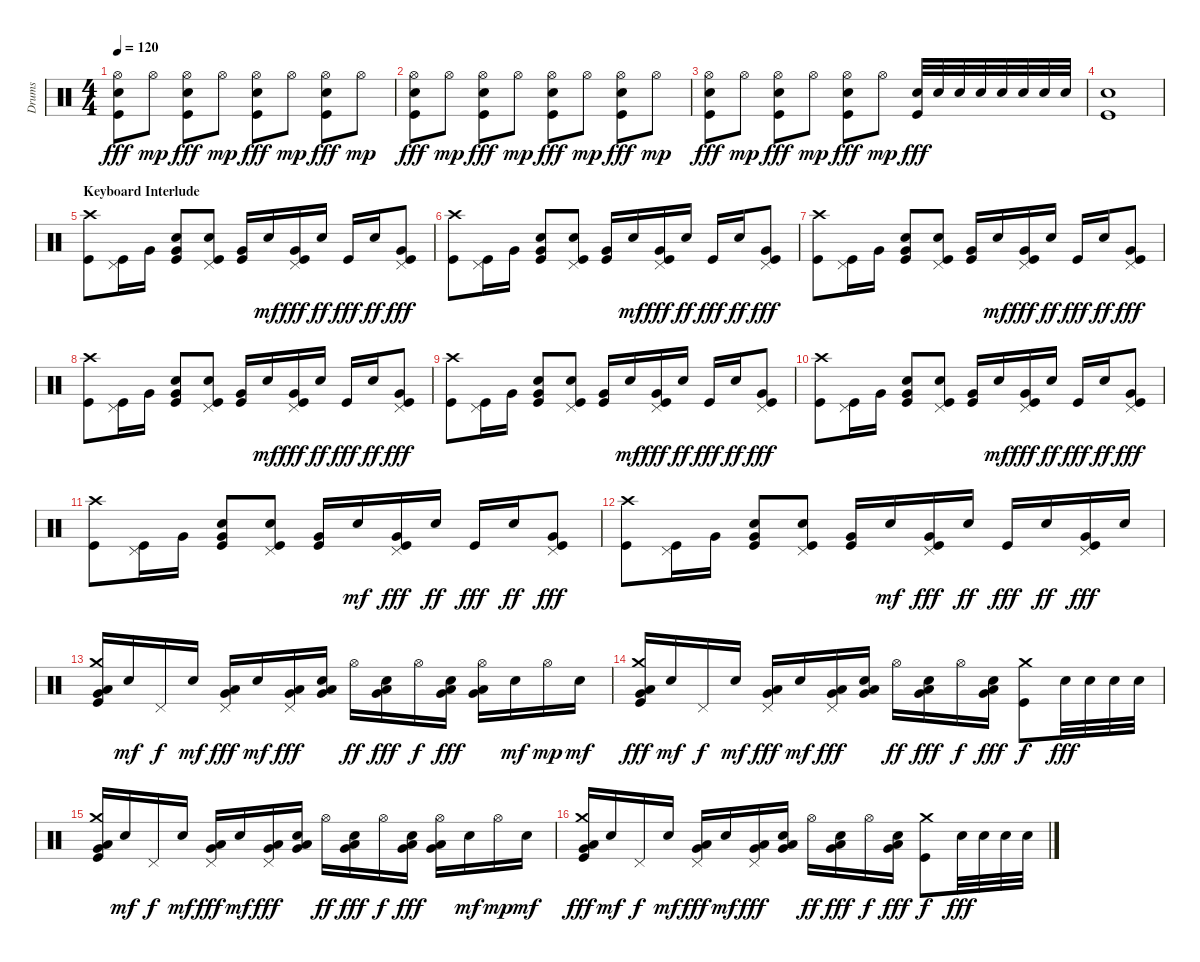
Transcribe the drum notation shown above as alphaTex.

\track ("Drums" "Drums") {instrument percussion}
\staff {score}
\articulation defaults
\ts (4 4)
\tempo 120
\clef neutral
\ks c
("Hi-Hat (open)" "Electric Snare (hit)" "Kick (hit)").8{dy fff} "Hi-Hat (open)".8{dy mp} ("Hi-Hat (open)" "Electric Snare (hit)" "Kick (hit)").8{dy fff} "Hi-Hat (open)".8{dy mp} ("Hi-Hat (open)" "Electric Snare (hit)" "Kick (hit)").8{dy fff} "Hi-Hat (open)".8{dy mp} ("Hi-Hat (open)" "Electric Snare (hit)" "Kick (hit)").8{dy fff} "Hi-Hat (open)".8{dy mp} |
("Hi-Hat (open)" "Electric Snare (hit)" "Kick (hit)").8{dy fff} "Hi-Hat (open)".8{dy mp} ("Hi-Hat (open)" "Electric Snare (hit)" "Kick (hit)").8{dy fff} "Hi-Hat (open)".8{dy mp} ("Hi-Hat (open)" "Electric Snare (hit)" "Kick (hit)").8{dy fff} "Hi-Hat (open)".8{dy mp} ("Hi-Hat (open)" "Electric Snare (hit)" "Kick (hit)").8{dy fff} "Hi-Hat (open)".8{dy mp} |
("Hi-Hat (open)" "Electric Snare (hit)" "Kick (hit)").8{dy fff} "Hi-Hat (open)".8{dy mp} ("Hi-Hat (open)" "Electric Snare (hit)" "Kick (hit)").8{dy fff} "Hi-Hat (open)".8{dy mp} ("Hi-Hat (open)" "Electric Snare (hit)" "Kick (hit)").8{dy fff} "Hi-Hat (open)".8{dy mp} ("Electric Snare (hit)" "Kick (hit)").32{dy fff} "Electric Snare (hit)".32 "Electric Snare (hit)".32 "Electric Snare (hit)".32 "Electric Snare (hit)".32 "Electric Snare (hit)".32 "Electric Snare (hit)".32 "Electric Snare (hit)".32 |
("Electric Snare (hit)" "Kick (hit)").1 |
\section ("" "Keyboard Interlude")
("Crash high (hit)" "Kick (hit)").8 ("Pedal Hi-Hat (hit)" "Kick (hit)").16 "Very Low Tom (hit)".16 ("Very Low Tom (hit)" "Electric Snare (hit)" "Kick (hit)").8 ("Pedal Hi-Hat (hit)" "Electric Snare (hit)" "Kick (hit)").8 ("Very Low Tom (hit)" "Kick (hit)").16 "Electric Snare (hit)".16{dy mf} ("Pedal Hi-Hat (hit)" "Very Low Tom (hit)" "Kick (hit)").16{dy fff} "Electric Snare (hit)".16{dy ff} "Kick (hit)".16{dy fff} "Electric Snare (hit)".16{dy ff} ("Pedal Hi-Hat (hit)" "Very Low Tom (hit)" "Kick (hit)").8{dy fff} |
("Crash high (hit)" "Kick (hit)").8 ("Pedal Hi-Hat (hit)" "Kick (hit)").16 "Very Low Tom (hit)".16 ("Very Low Tom (hit)" "Electric Snare (hit)" "Kick (hit)").8 ("Pedal Hi-Hat (hit)" "Electric Snare (hit)" "Kick (hit)").8 ("Very Low Tom (hit)" "Kick (hit)").16 "Electric Snare (hit)".16{dy mf} ("Pedal Hi-Hat (hit)" "Very Low Tom (hit)" "Kick (hit)").16{dy fff} "Electric Snare (hit)".16{dy ff} "Kick (hit)".16{dy fff} "Electric Snare (hit)".16{dy ff} ("Pedal Hi-Hat (hit)" "Very Low Tom (hit)" "Kick (hit)").8{dy fff} |
("Crash high (hit)" "Kick (hit)").8 ("Pedal Hi-Hat (hit)" "Kick (hit)").16 "Very Low Tom (hit)".16 ("Very Low Tom (hit)" "Electric Snare (hit)" "Kick (hit)").8 ("Pedal Hi-Hat (hit)" "Electric Snare (hit)" "Kick (hit)").8 ("Very Low Tom (hit)" "Kick (hit)").16 "Electric Snare (hit)".16{dy mf} ("Pedal Hi-Hat (hit)" "Very Low Tom (hit)" "Kick (hit)").16{dy fff} "Electric Snare (hit)".16{dy ff} "Kick (hit)".16{dy fff} "Electric Snare (hit)".16{dy ff} ("Pedal Hi-Hat (hit)" "Very Low Tom (hit)" "Kick (hit)").8{dy fff} |
("Crash high (hit)" "Kick (hit)").8 ("Pedal Hi-Hat (hit)" "Kick (hit)").16 "Very Low Tom (hit)".16 ("Very Low Tom (hit)" "Electric Snare (hit)" "Kick (hit)").8 ("Pedal Hi-Hat (hit)" "Electric Snare (hit)" "Kick (hit)").8 ("Very Low Tom (hit)" "Kick (hit)").16 "Electric Snare (hit)".16{dy mf} ("Pedal Hi-Hat (hit)" "Very Low Tom (hit)" "Kick (hit)").16{dy fff} "Electric Snare (hit)".16{dy ff} "Kick (hit)".16{dy fff} "Electric Snare (hit)".16{dy ff} ("Pedal Hi-Hat (hit)" "Very Low Tom (hit)" "Kick (hit)").8{dy fff} |
("Crash high (hit)" "Kick (hit)").8 ("Pedal Hi-Hat (hit)" "Kick (hit)").16 "Very Low Tom (hit)".16 ("Very Low Tom (hit)" "Electric Snare (hit)" "Kick (hit)").8 ("Pedal Hi-Hat (hit)" "Electric Snare (hit)" "Kick (hit)").8 ("Very Low Tom (hit)" "Kick (hit)").16 "Electric Snare (hit)".16{dy mf} ("Pedal Hi-Hat (hit)" "Very Low Tom (hit)" "Kick (hit)").16{dy fff} "Electric Snare (hit)".16{dy ff} "Kick (hit)".16{dy fff} "Electric Snare (hit)".16{dy ff} ("Pedal Hi-Hat (hit)" "Very Low Tom (hit)" "Kick (hit)").8{dy fff} |
("Crash high (hit)" "Kick (hit)").8 ("Pedal Hi-Hat (hit)" "Kick (hit)").16 "Very Low Tom (hit)".16 ("Very Low Tom (hit)" "Electric Snare (hit)" "Kick (hit)").8 ("Pedal Hi-Hat (hit)" "Electric Snare (hit)" "Kick (hit)").8 ("Very Low Tom (hit)" "Kick (hit)").16 "Electric Snare (hit)".16{dy mf} ("Pedal Hi-Hat (hit)" "Very Low Tom (hit)" "Kick (hit)").16{dy fff} "Electric Snare (hit)".16{dy ff} "Kick (hit)".16{dy fff} "Electric Snare (hit)".16{dy ff} ("Pedal Hi-Hat (hit)" "Very Low Tom (hit)" "Kick (hit)").8{dy fff} |
("Crash high (hit)" "Kick (hit)").8 ("Pedal Hi-Hat (hit)" "Kick (hit)").16 "Very Low Tom (hit)".16 ("Very Low Tom (hit)" "Electric Snare (hit)" "Kick (hit)").8 ("Pedal Hi-Hat (hit)" "Electric Snare (hit)" "Kick (hit)").8 ("Very Low Tom (hit)" "Kick (hit)").16 "Electric Snare (hit)".16{dy mf} ("Pedal Hi-Hat (hit)" "Very Low Tom (hit)" "Kick (hit)").16{dy fff} "Electric Snare (hit)".16{dy ff} "Kick (hit)".16{dy fff} "Electric Snare (hit)".16{dy ff} ("Pedal Hi-Hat (hit)" "Very Low Tom (hit)" "Kick (hit)").8{dy fff} |
("Crash high (hit)" "Kick (hit)").8 ("Pedal Hi-Hat (hit)" "Kick (hit)").16 "Very Low Tom (hit)".16 ("Very Low Tom (hit)" "Electric Snare (hit)" "Kick (hit)").8 ("Pedal Hi-Hat (hit)" "Electric Snare (hit)" "Kick (hit)").8 ("Very Low Tom (hit)" "Kick (hit)").16 "Electric Snare (hit)".16{dy mf} ("Pedal Hi-Hat (hit)" "Very Low Tom (hit)" "Kick (hit)").16{dy fff} "Electric Snare (hit)".16{dy ff} "Kick (hit)".16{dy fff} "Electric Snare (hit)".16{dy ff} ("Pedal Hi-Hat (hit)" "Very Low Tom (hit)" "Kick (hit)").16{dy fff} "Electric Snare (hit)".16 |
("Crash medium (hit)" "Very Low Tom (hit)" "Low Tom (hit)" "Kick (hit)").16 "Electric Snare (hit)".16{dy mf} "Pedal Hi-Hat (hit)".16{dy f} "Electric Snare (hit)".16{dy mf} ("Pedal Hi-Hat (hit)" "Very Low Tom (hit)" "Low Tom (hit)").16{dy fff} "Electric Snare (hit)".16{dy mf} ("Pedal Hi-Hat (hit)" "Very Low Tom (hit)" "Low Tom (hit)").16{dy fff} ("Electric Snare (hit)" "Very Low Tom (hit)" "Low Tom (hit)").16 "Hi-Hat (open)".16{dy ff} ("Electric Snare (hit)" "Very Low Tom (hit)" "Low Tom (hit)").16{dy fff} "Hi-Hat (open)".16{dy f} ("Electric Snare (hit)" "Very Low Tom (hit)" "Low Tom (hit)").16{dy fff} ("Hi-Hat (open)" "Very Low Tom (hit)" "Low Tom (hit)").16 "Electric Snare (hit)".16{dy mf} "Hi-Hat (open)".16{dy mp} "Electric Snare (hit)".16{dy mf} |
("Crash medium (hit)" "Very Low Tom (hit)" "Low Tom (hit)" "Kick (hit)").16{dy fff} "Electric Snare (hit)".16{dy mf} "Pedal Hi-Hat (hit)".16{dy f} "Electric Snare (hit)".16{dy mf} ("Pedal Hi-Hat (hit)" "Very Low Tom (hit)" "Low Tom (hit)").16{dy fff} "Electric Snare (hit)".16{dy mf} ("Pedal Hi-Hat (hit)" "Very Low Tom (hit)" "Low Tom (hit)").16{dy fff} ("Electric Snare (hit)" "Very Low Tom (hit)" "Low Tom (hit)").16 "Hi-Hat (open)".16{dy ff} ("Electric Snare (hit)" "Very Low Tom (hit)" "Low Tom (hit)").16{dy fff} "Hi-Hat (open)".16{dy f} ("Electric Snare (hit)" "Very Low Tom (hit)" "Low Tom (hit)").16{dy fff} ("Crash medium (hit)" "Kick (hit)").8{dy f} "Electric Snare (hit)".32{dy fff} "Electric Snare (hit)".32 "Electric Snare (hit)".32 "Electric Snare (hit)".32 |
("Crash medium (hit)" "Very Low Tom (hit)" "Low Tom (hit)" "Kick (hit)").16 "Electric Snare (hit)".16{dy mf} "Pedal Hi-Hat (hit)".16{dy f} "Electric Snare (hit)".16{dy mf} ("Pedal Hi-Hat (hit)" "Very Low Tom (hit)" "Low Tom (hit)").16{dy fff} "Electric Snare (hit)".16{dy mf} ("Pedal Hi-Hat (hit)" "Very Low Tom (hit)" "Low Tom (hit)").16{dy fff} ("Electric Snare (hit)" "Very Low Tom (hit)" "Low Tom (hit)").16 "Hi-Hat (open)".16{dy ff} ("Electric Snare (hit)" "Very Low Tom (hit)" "Low Tom (hit)").16{dy fff} "Hi-Hat (open)".16{dy f} ("Electric Snare (hit)" "Very Low Tom (hit)" "Low Tom (hit)").16{dy fff} ("Hi-Hat (open)" "Very Low Tom (hit)" "Low Tom (hit)").16 "Electric Snare (hit)".16{dy mf} "Hi-Hat (open)".16{dy mp} "Electric Snare (hit)".16{dy mf} |
("Crash medium (hit)" "Very Low Tom (hit)" "Low Tom (hit)" "Kick (hit)").16{dy fff} "Electric Snare (hit)".16{dy mf} "Pedal Hi-Hat (hit)".16{dy f} "Electric Snare (hit)".16{dy mf} ("Pedal Hi-Hat (hit)" "Very Low Tom (hit)" "Low Tom (hit)").16{dy fff} "Electric Snare (hit)".16{dy mf} ("Pedal Hi-Hat (hit)" "Very Low Tom (hit)" "Low Tom (hit)").16{dy fff} ("Electric Snare (hit)" "Very Low Tom (hit)" "Low Tom (hit)").16 "Hi-Hat (open)".16{dy ff} ("Electric Snare (hit)" "Very Low Tom (hit)" "Low Tom (hit)").16{dy fff} "Hi-Hat (open)".16{dy f} ("Electric Snare (hit)" "Very Low Tom (hit)" "Low Tom (hit)").16{dy fff} ("Crash medium (hit)" "Kick (hit)").8{dy f} "Electric Snare (hit)".32{dy fff} "Electric Snare (hit)".32 "Electric Snare (hit)".32 "Electric Snare (hit)".32
